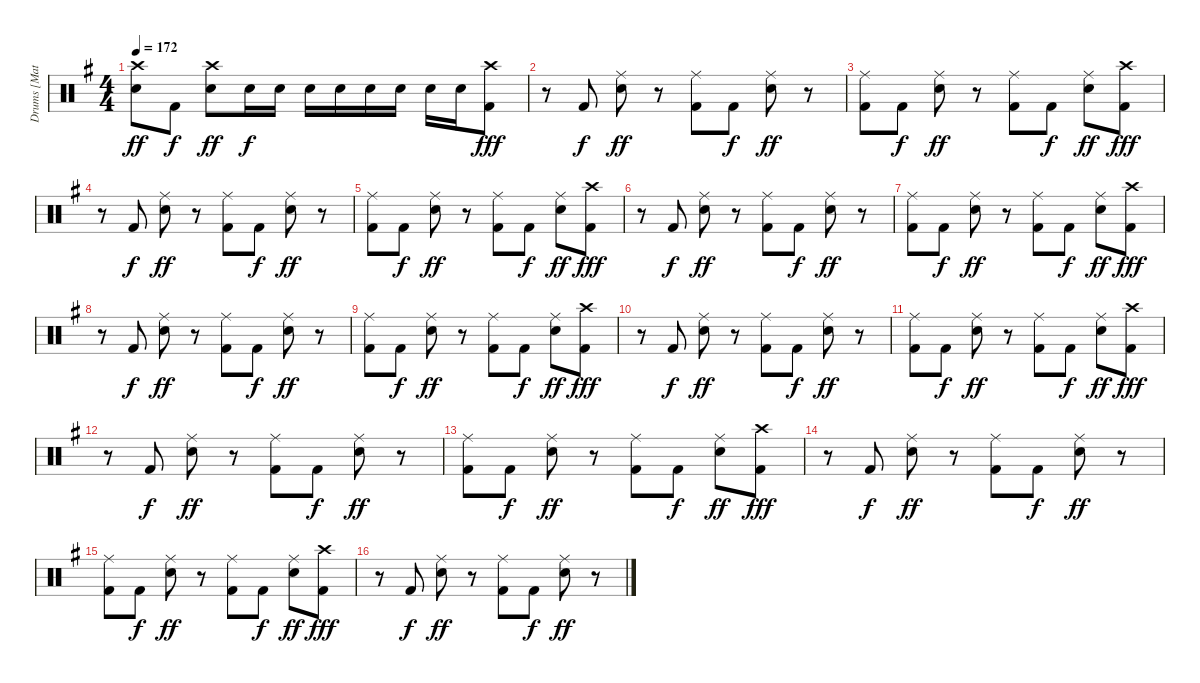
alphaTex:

\track ("Drums [Matt]" "Drums [Mat") {instrument percussion}
\staff {score}
\articulation defaults
\ts (4 4)
\tempo 172
\clef neutral
\ks g
("Snare (hit) 2" "Crash high (hit)").8{dy ff} "Kick (hit) 2".8{dy f} ("Snare (hit) 2" "Crash high (hit)").8{dy ff} "Snare (hit) 2".16{dy f} "Snare (hit) 2".16 "Snare (hit) 2".16 "Snare (hit) 2".16 "Snare (hit) 2".16 "Snare (hit) 2".16 "Snare (hit) 2".16 "Snare (hit) 2".16 ("Kick (hit) 2" "Crash high (hit)").8{dy fff} |
r.8 "Kick (hit) 2".8{dy f} ("Ride (middle)" "Snare (hit) 2").8{dy ff} r.8 ("Ride (middle)" "Kick (hit) 2").8 "Kick (hit) 2".8{dy f} ("Ride (middle)" "Snare (hit) 2").8{dy ff} r.8 |
("Ride (middle)" "Kick (hit) 2").8 "Kick (hit) 2".8{dy f} ("Ride (middle)" "Snare (hit) 2").8{dy ff} r.8 ("Ride (middle)" "Kick (hit) 2").8 "Kick (hit) 2".8{dy f} ("Ride (middle)" "Snare (hit) 2").8{dy ff} ("Kick (hit) 2" "Crash high (hit)").8{dy fff} |
r.8 "Kick (hit) 2".8{dy f} ("Ride (middle)" "Snare (hit) 2").8{dy ff} r.8 ("Ride (middle)" "Kick (hit) 2").8 "Kick (hit) 2".8{dy f} ("Ride (middle)" "Snare (hit) 2").8{dy ff} r.8 |
("Ride (middle)" "Kick (hit) 2").8 "Kick (hit) 2".8{dy f} ("Ride (middle)" "Snare (hit) 2").8{dy ff} r.8 ("Ride (middle)" "Kick (hit) 2").8 "Kick (hit) 2".8{dy f} ("Ride (middle)" "Snare (hit) 2").8{dy ff} ("Kick (hit) 2" "Crash high (hit)").8{dy fff} |
r.8 "Kick (hit) 2".8{dy f} ("Ride (middle)" "Snare (hit) 2").8{dy ff} r.8 ("Ride (middle)" "Kick (hit) 2").8 "Kick (hit) 2".8{dy f} ("Ride (middle)" "Snare (hit) 2").8{dy ff} r.8 |
("Ride (middle)" "Kick (hit) 2").8 "Kick (hit) 2".8{dy f} ("Ride (middle)" "Snare (hit) 2").8{dy ff} r.8 ("Ride (middle)" "Kick (hit) 2").8 "Kick (hit) 2".8{dy f} ("Ride (middle)" "Snare (hit) 2").8{dy ff} ("Kick (hit) 2" "Crash high (hit)").8{dy fff} |
r.8 "Kick (hit) 2".8{dy f} ("Ride (middle)" "Snare (hit) 2").8{dy ff} r.8 ("Ride (middle)" "Kick (hit) 2").8 "Kick (hit) 2".8{dy f} ("Ride (middle)" "Snare (hit) 2").8{dy ff} r.8 |
("Ride (middle)" "Kick (hit) 2").8 "Kick (hit) 2".8{dy f} ("Ride (middle)" "Snare (hit) 2").8{dy ff} r.8 ("Ride (middle)" "Kick (hit) 2").8 "Kick (hit) 2".8{dy f} ("Ride (middle)" "Snare (hit) 2").8{dy ff} ("Kick (hit) 2" "Crash high (hit)").8{dy fff} |
r.8 "Kick (hit) 2".8{dy f} ("Ride (middle)" "Snare (hit) 2").8{dy ff} r.8 ("Ride (middle)" "Kick (hit) 2").8 "Kick (hit) 2".8{dy f} ("Ride (middle)" "Snare (hit) 2").8{dy ff} r.8 |
("Ride (middle)" "Kick (hit) 2").8 "Kick (hit) 2".8{dy f} ("Ride (middle)" "Snare (hit) 2").8{dy ff} r.8 ("Ride (middle)" "Kick (hit) 2").8 "Kick (hit) 2".8{dy f} ("Ride (middle)" "Snare (hit) 2").8{dy ff} ("Kick (hit) 2" "Crash high (hit)").8{dy fff} |
r.8 "Kick (hit) 2".8{dy f} ("Ride (middle)" "Snare (hit) 2").8{dy ff} r.8 ("Ride (middle)" "Kick (hit) 2").8 "Kick (hit) 2".8{dy f} ("Ride (middle)" "Snare (hit) 2").8{dy ff} r.8 |
("Ride (middle)" "Kick (hit) 2").8 "Kick (hit) 2".8{dy f} ("Ride (middle)" "Snare (hit) 2").8{dy ff} r.8 ("Ride (middle)" "Kick (hit) 2").8 "Kick (hit) 2".8{dy f} ("Ride (middle)" "Snare (hit) 2").8{dy ff} ("Kick (hit) 2" "Crash high (hit)").8{dy fff} |
r.8 "Kick (hit) 2".8{dy f} ("Ride (middle)" "Snare (hit) 2").8{dy ff} r.8 ("Ride (middle)" "Kick (hit) 2").8 "Kick (hit) 2".8{dy f} ("Ride (middle)" "Snare (hit) 2").8{dy ff} r.8 |
("Ride (middle)" "Kick (hit) 2").8 "Kick (hit) 2".8{dy f} ("Ride (middle)" "Snare (hit) 2").8{dy ff} r.8 ("Ride (middle)" "Kick (hit) 2").8 "Kick (hit) 2".8{dy f} ("Ride (middle)" "Snare (hit) 2").8{dy ff} ("Kick (hit) 2" "Crash high (hit)").8{dy fff} |
r.8 "Kick (hit) 2".8{dy f} ("Ride (middle)" "Snare (hit) 2").8{dy ff} r.8 ("Ride (middle)" "Kick (hit) 2").8 "Kick (hit) 2".8{dy f} ("Ride (middle)" "Snare (hit) 2").8{dy ff} r.8
